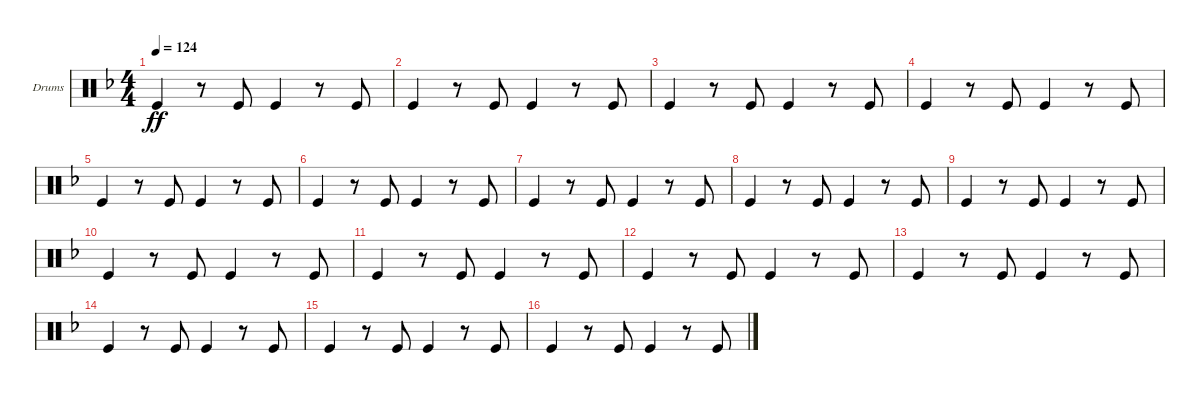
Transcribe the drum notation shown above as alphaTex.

\bracketExtendMode groupsimilarinstruments
\firstSystemTrackNameOrientation horizontal
\otherSystemsTrackNameOrientation horizontal
\track ("Kick Drum" "Drums") {instrument percussion}
\staff {score}
\articulation defaults
\ts (4 4)
\tempo 124
\clef neutral
\scale
0.333333
\ks dminor "Kick (hit)".4{dy ff}
r.8 "Kick (hit)".8 "Kick (hit)".4 r.8 "Kick (hit)".8 |
\scale
0.333333 "Kick (hit)".4 r.8 "Kick (hit)".8 "Kick (hit)".4 r.8 "Kick (hit)".8 |
\scale
0.333333 "Kick (hit)".4 r.8 "Kick (hit)".8 "Kick (hit)".4 r.8 "Kick (hit)".8 |
\scale
0.333333 "Kick (hit)".4 r.8 "Kick (hit)".8 "Kick (hit)".4 r.8 "Kick (hit)".8 |
\scale
0.333333 "Kick (hit)".4 r.8 "Kick (hit)".8 "Kick (hit)".4 r.8 "Kick (hit)".8 |
\scale
0.333333 "Kick (hit)".4 r.8 "Kick (hit)".8 "Kick (hit)".4 r.8 "Kick (hit)".8 |
\scale
0.333333 "Kick (hit)".4 r.8 "Kick (hit)".8 "Kick (hit)".4 r.8 "Kick (hit)".8 |
\scale
0.301075 "Kick (hit)".4 r.8 "Kick (hit)".8 "Kick (hit)".4 r.8 "Kick (hit)".8 |
\scale
0.365591 "Kick (hit)".4 r.8 "Kick (hit)".8 "Kick (hit)".4 r.8 "Kick (hit)".8 |
"Kick (hit)".4 r.8 "Kick (hit)".8 "Kick (hit)".4 r.8 "Kick (hit)".8 |
"Kick (hit)".4 r.8 "Kick (hit)".8 "Kick (hit)".4 r.8 "Kick (hit)".8 |
\scale
0.333333 "Kick (hit)".4 r.8 "Kick (hit)".8 "Kick (hit)".4 r.8 "Kick (hit)".8 |
\scale
0.333333 "Kick (hit)".4 r.8 "Kick (hit)".8 "Kick (hit)".4 r.8 "Kick (hit)".8 |
\scale
0.333333 "Kick (hit)".4 r.8 "Kick (hit)".8 "Kick (hit)".4 r.8 "Kick (hit)".8 |
\scale
0.333333 "Kick (hit)".4 r.8 "Kick (hit)".8 "Kick (hit)".4 r.8 "Kick (hit)".8 |
\scale
0.333333 "Kick (hit)".4 r.8 "Kick (hit)".8 "Kick (hit)".4 r.8 "Kick (hit)".8
